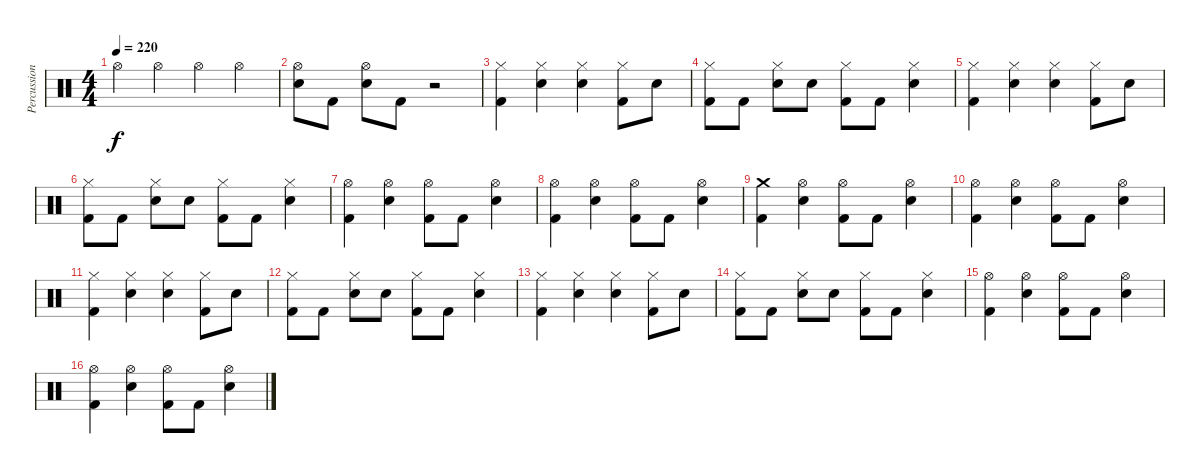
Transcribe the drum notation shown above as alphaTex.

\track ("Percussion" "Percussion") {instrument percussion}
\staff {score}
\articulation defaults
\ts (4 4)
\tempo 220
\clef neutral
\ks c "Hi-Hat (open)".4{dy f} "Hi-Hat (open)".4 "Hi-Hat (open)".4 "Hi-Hat (open)".4
|
("Hi-Hat (open)" "Snare (hit) 2").8 "Kick (hit) 2".8 ("Hi-Hat (open)" "Snare (hit) 2").8 "Kick (hit) 2".8 r.2 |
("Hi-Hat (closed)" "Kick (hit) 2").4 ("Hi-Hat (closed)" "Snare (hit) 2").4 ("Hi-Hat (closed)" "Snare (hit) 2").4 ("Hi-Hat (closed)" "Kick (hit) 2").8 "Snare (hit) 2".8 |
("Hi-Hat (closed)" "Kick (hit) 2").8 "Kick (hit) 2".8 ("Hi-Hat (closed)" "Snare (hit) 2").8 "Snare (hit) 2".8 ("Hi-Hat (closed)" "Kick (hit) 2").8 "Kick (hit) 2".8 ("Hi-Hat (closed)" "Snare (hit) 2").4 |
("Hi-Hat (closed)" "Kick (hit) 2").4 ("Hi-Hat (closed)" "Snare (hit) 2").4 ("Hi-Hat (closed)" "Snare (hit) 2").4 ("Hi-Hat (closed)" "Kick (hit) 2").8 "Snare (hit) 2".8 |
("Hi-Hat (closed)" "Kick (hit) 2").8 "Kick (hit) 2".8 ("Hi-Hat (closed)" "Snare (hit) 2").8 "Snare (hit) 2".8 ("Hi-Hat (closed)" "Kick (hit) 2").8 "Kick (hit) 2".8 ("Hi-Hat (closed)" "Snare (hit) 2").4 |
("Hi-Hat (open)" "Kick (hit) 2").4 ("Hi-Hat (open)" "Snare (hit) 2").4 ("Hi-Hat (open)" "Kick (hit) 2").8 "Kick (hit) 2".8 ("Hi-Hat (open)" "Snare (hit) 2").4 |
("Hi-Hat (open)" "Kick (hit) 2").4 ("Hi-Hat (open)" "Snare (hit) 2").4 ("Hi-Hat (open)" "Kick (hit) 2").8 "Kick (hit) 2".8 ("Hi-Hat (open)" "Snare (hit) 2").4 |
("Crash medium (hit)" "Kick (hit) 2").4 ("Hi-Hat (open)" "Snare (hit) 2").4 ("Hi-Hat (open)" "Kick (hit) 2").8 "Kick (hit) 2".8 ("Hi-Hat (open)" "Snare (hit) 2").4 |
("Hi-Hat (open)" "Kick (hit) 2").4 ("Hi-Hat (open)" "Snare (hit) 2").4 ("Hi-Hat (open)" "Kick (hit) 2").8 "Kick (hit) 2".8 ("Hi-Hat (open)" "Snare (hit) 2").4 |
("Hi-Hat (closed)" "Kick (hit) 2").4 ("Hi-Hat (closed)" "Snare (hit) 2").4 ("Hi-Hat (closed)" "Snare (hit) 2").4 ("Hi-Hat (closed)" "Kick (hit) 2").8 "Snare (hit) 2".8 |
("Hi-Hat (closed)" "Kick (hit) 2").8 "Kick (hit) 2".8 ("Hi-Hat (closed)" "Snare (hit) 2").8 "Snare (hit) 2".8 ("Hi-Hat (closed)" "Kick (hit) 2").8 "Kick (hit) 2".8 ("Hi-Hat (closed)" "Snare (hit) 2").4 |
("Hi-Hat (closed)" "Kick (hit) 2").4 ("Hi-Hat (closed)" "Snare (hit) 2").4 ("Hi-Hat (closed)" "Snare (hit) 2").4 ("Hi-Hat (closed)" "Kick (hit) 2").8 "Snare (hit) 2".8 |
("Hi-Hat (closed)" "Kick (hit) 2").8 "Kick (hit) 2".8 ("Hi-Hat (closed)" "Snare (hit) 2").8 "Snare (hit) 2".8 ("Hi-Hat (closed)" "Kick (hit) 2").8 "Kick (hit) 2".8 ("Hi-Hat (closed)" "Snare (hit) 2").4 |
("Hi-Hat (open)" "Kick (hit) 2").4 ("Hi-Hat (open)" "Snare (hit) 2").4 ("Hi-Hat (open)" "Kick (hit) 2").8 "Kick (hit) 2".8 ("Hi-Hat (open)" "Snare (hit) 2").4 |
("Hi-Hat (open)" "Kick (hit) 2").4 ("Hi-Hat (open)" "Snare (hit) 2").4 ("Hi-Hat (open)" "Kick (hit) 2").8 "Kick (hit) 2".8 ("Hi-Hat (open)" "Snare (hit) 2").4
